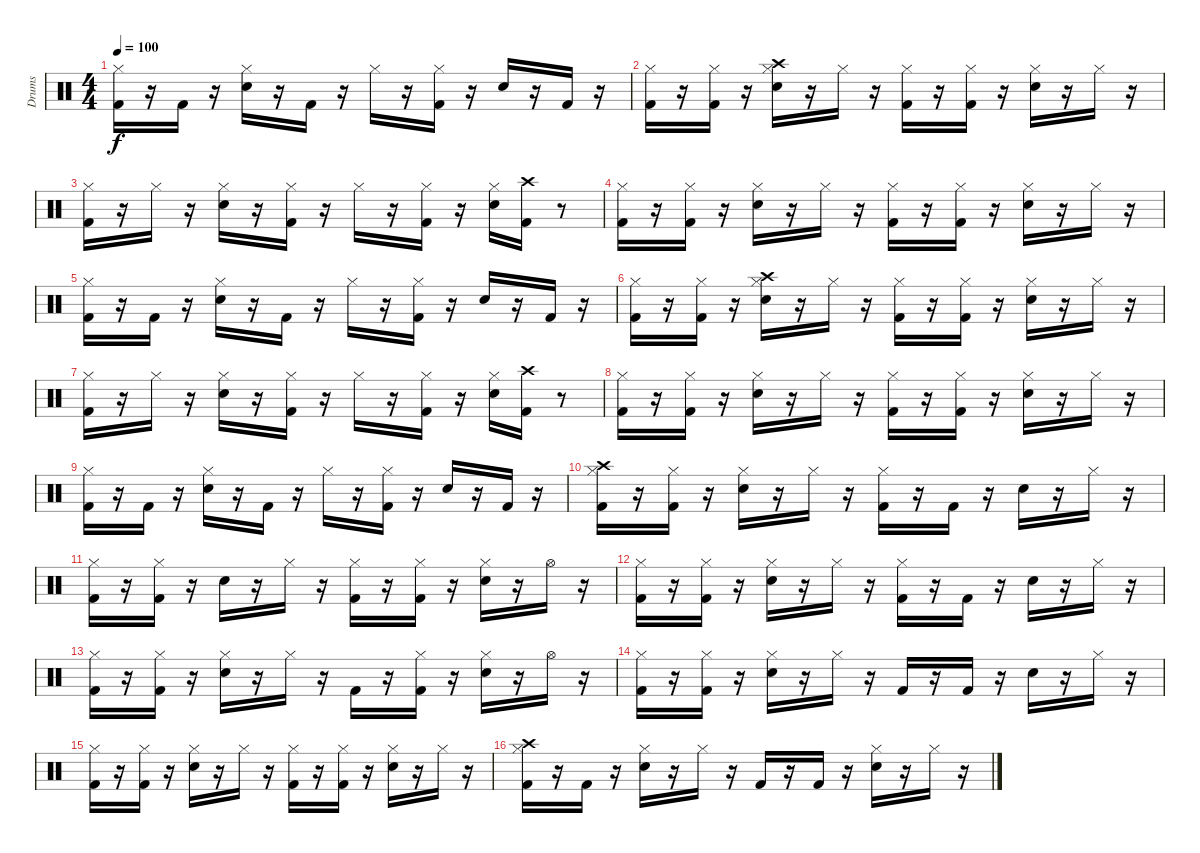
\track ("Drums" "Drums") {instrument percussion}
\staff {score}
\articulation defaults
\ts (4 4)
\tempo 100
\clef neutral
\ks c
("Kick (hit) 2" "Hi-Hat (closed)").16{dy f} r.16 "Kick (hit) 2".16 r.16 ("Snare (hit) 2" "Hi-Hat (closed)").16 r.16 "Kick (hit) 2".16 r.16 "Hi-Hat (closed)".16 r.16 ("Kick (hit) 2" "Hi-Hat (closed)").16 r.16 "Snare (hit) 2".16 r.16 "Kick (hit) 2".16 r.16 |
("Kick (hit) 2" "Hi-Hat (closed)").16 r.16 ("Kick (hit) 2" "Hi-Hat (closed)").16 r.16 ("Snare (hit) 2" "Hi-Hat (closed)" "Crash high (hit)").16 r.16 "Hi-Hat (closed)".16 r.16 ("Kick (hit) 2" "Hi-Hat (closed)").16 r.16 ("Kick (hit) 2" "Hi-Hat (closed)").16 r.16 ("Snare (hit) 2" "Hi-Hat (closed)").16 r.16 "Hi-Hat (closed)".16 r.16 |
("Kick (hit) 2" "Hi-Hat (closed)").16 r.16 "Hi-Hat (closed)".16 r.16 ("Snare (hit) 2" "Hi-Hat (closed)").16 r.16 ("Kick (hit) 2" "Hi-Hat (closed)").16 r.16 "Hi-Hat (closed)".16 r.16 ("Kick (hit) 2" "Hi-Hat (closed)").16 r.16 ("Snare (hit) 2" "Hi-Hat (closed)").16 ("Kick (hit) 2" "Crash high (hit)").16 r.8 |
("Kick (hit) 2" "Hi-Hat (closed)").16 r.16 ("Kick (hit) 2" "Hi-Hat (closed)").16 r.16 ("Snare (hit) 2" "Hi-Hat (closed)").16 r.16 "Hi-Hat (closed)".16 r.16 ("Kick (hit) 2" "Hi-Hat (closed)").16 r.16 ("Kick (hit) 2" "Hi-Hat (closed)").16 r.16 ("Snare (hit) 2" "Hi-Hat (closed)").16 r.16 "Hi-Hat (closed)".16 r.16 |
("Kick (hit) 2" "Hi-Hat (closed)").16 r.16 "Kick (hit) 2".16 r.16 ("Snare (hit) 2" "Hi-Hat (closed)").16 r.16 "Kick (hit) 2".16 r.16 "Hi-Hat (closed)".16 r.16 ("Kick (hit) 2" "Hi-Hat (closed)").16 r.16 "Snare (hit) 2".16 r.16 "Kick (hit) 2".16 r.16 |
("Kick (hit) 2" "Hi-Hat (closed)").16 r.16 ("Kick (hit) 2" "Hi-Hat (closed)").16 r.16 ("Snare (hit) 2" "Hi-Hat (closed)" "Crash high (hit)").16 r.16 "Hi-Hat (closed)".16 r.16 ("Kick (hit) 2" "Hi-Hat (closed)").16 r.16 ("Kick (hit) 2" "Hi-Hat (closed)").16 r.16 ("Snare (hit) 2" "Hi-Hat (closed)").16 r.16 "Hi-Hat (closed)".16 r.16 |
("Kick (hit) 2" "Hi-Hat (closed)").16 r.16 "Hi-Hat (closed)".16 r.16 ("Snare (hit) 2" "Hi-Hat (closed)").16 r.16 ("Kick (hit) 2" "Hi-Hat (closed)").16 r.16 "Hi-Hat (closed)".16 r.16 ("Kick (hit) 2" "Hi-Hat (closed)").16 r.16 ("Snare (hit) 2" "Hi-Hat (closed)").16 ("Kick (hit) 2" "Crash high (hit)").16 r.8 |
("Kick (hit) 2" "Hi-Hat (closed)").16 r.16 ("Kick (hit) 2" "Hi-Hat (closed)").16 r.16 ("Snare (hit) 2" "Hi-Hat (closed)").16 r.16 "Hi-Hat (closed)".16 r.16 ("Kick (hit) 2" "Hi-Hat (closed)").16 r.16 ("Kick (hit) 2" "Hi-Hat (closed)").16 r.16 ("Snare (hit) 2" "Hi-Hat (closed)").16 r.16 "Hi-Hat (closed)".16 r.16 |
("Kick (hit) 2" "Hi-Hat (closed)").16 r.16 "Kick (hit) 2".16 r.16 ("Snare (hit) 2" "Hi-Hat (closed)").16 r.16 "Kick (hit) 2".16 r.16 "Hi-Hat (closed)".16 r.16 ("Kick (hit) 2" "Hi-Hat (closed)").16 r.16 "Snare (hit) 2".16 r.16 "Kick (hit) 2".16 r.16 |
("Kick (hit) 2" "Hi-Hat (closed)" "Crash high (hit)").16 r.16 ("Kick (hit) 2" "Hi-Hat (closed)").16 r.16 ("Snare (hit) 2" "Hi-Hat (closed)").16 r.16 "Hi-Hat (closed)".16 r.16 ("Kick (hit) 2" "Hi-Hat (closed)").16 r.16 "Kick (hit) 2".16 r.16 "Snare (hit) 2".16 r.16 "Hi-Hat (closed)".16 r.16 |
("Kick (hit) 2" "Hi-Hat (closed)").16 r.16 ("Kick (hit) 2" "Hi-Hat (closed)").16 r.16 "Snare (hit) 2".16 r.16 "Hi-Hat (closed)".16 r.16 ("Kick (hit) 2" "Hi-Hat (closed)").16 r.16 ("Kick (hit) 2" "Hi-Hat (closed)").16 r.16 ("Snare (hit) 2" "Hi-Hat (closed)").16 r.16 "Hi-Hat (open)".16 r.16 |
("Kick (hit) 2" "Hi-Hat (closed)").16 r.16 ("Kick (hit) 2" "Hi-Hat (closed)").16 r.16 ("Snare (hit) 2" "Hi-Hat (closed)").16 r.16 "Hi-Hat (closed)".16 r.16 ("Kick (hit) 2" "Hi-Hat (closed)").16 r.16 "Kick (hit) 2".16 r.16 "Snare (hit) 2".16 r.16 "Hi-Hat (closed)".16 r.16 |
("Kick (hit) 2" "Hi-Hat (closed)").16 r.16 ("Kick (hit) 2" "Hi-Hat (closed)").16 r.16 ("Snare (hit) 2" "Hi-Hat (closed)").16 r.16 "Hi-Hat (closed)".16 r.16 "Kick (hit) 2".16 r.16 ("Kick (hit) 2" "Hi-Hat (closed)").16 r.16 ("Snare (hit) 2" "Hi-Hat (closed)").16 r.16 "Hi-Hat (open)".16 r.16 |
("Kick (hit) 2" "Hi-Hat (closed)").16 r.16 ("Kick (hit) 2" "Hi-Hat (closed)").16 r.16 ("Snare (hit) 2" "Hi-Hat (closed)").16 r.16 "Hi-Hat (closed)".16 r.16 "Kick (hit) 2".16 r.16 "Kick (hit) 2".16 r.16 "Snare (hit) 2".16 r.16 "Hi-Hat (closed)".16 r.16 |
("Kick (hit) 2" "Hi-Hat (closed)").16 r.16 ("Kick (hit) 2" "Hi-Hat (closed)").16 r.16 ("Snare (hit) 2" "Hi-Hat (closed)").16 r.16 "Hi-Hat (closed)".16 r.16 ("Kick (hit) 2" "Hi-Hat (closed)").16 r.16 ("Kick (hit) 2" "Hi-Hat (closed)").16 r.16 ("Snare (hit) 2" "Hi-Hat (closed)").16 r.16 "Hi-Hat (closed)".16 r.16 |
("Kick (hit) 2" "Hi-Hat (closed)" "Crash high (hit)").16 r.16 "Kick (hit) 2".16 r.16 ("Snare (hit) 2" "Hi-Hat (closed)").16 r.16 "Hi-Hat (closed)".16 r.16 "Kick (hit) 2".16 r.16 "Kick (hit) 2".16 r.16 ("Snare (hit) 2" "Hi-Hat (closed)").16 r.16 "Hi-Hat (closed)".16 r.16
